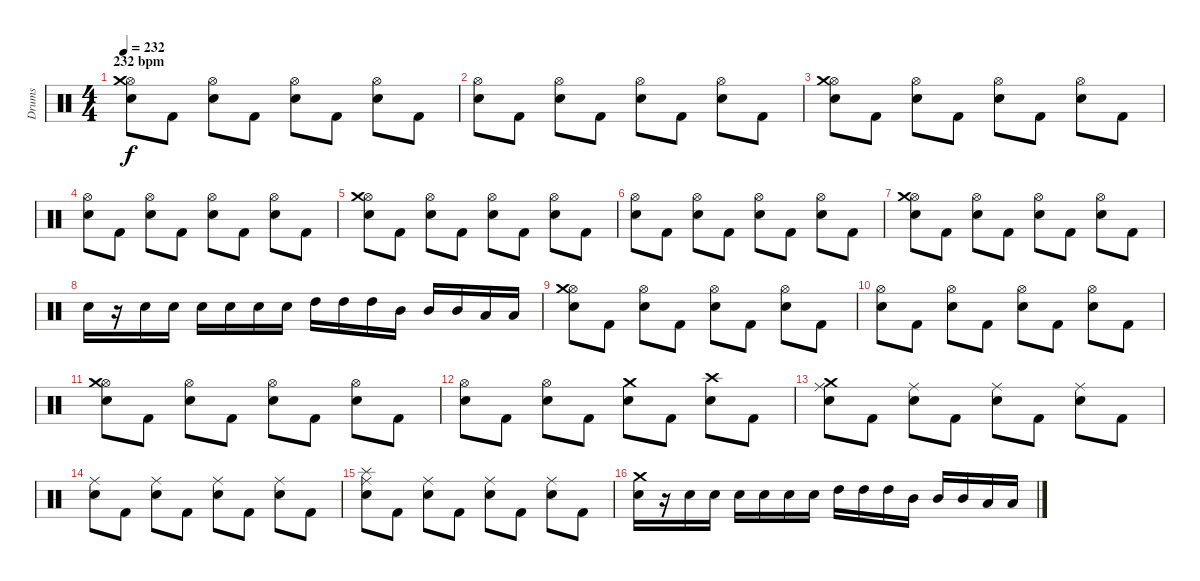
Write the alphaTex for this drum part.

\track ("Drums" "Drums") {instrument percussion}
\staff {score}
\articulation defaults
\ts (4 4)
\section ("" "232 bpm")
\tempo 232
\clef neutral
\ks c
("Snare (hit) 2" "Hi-Hat (open)" "Crash medium (hit)").8{dy f} "Kick (hit) 2".8 ("Snare (hit) 2" "Hi-Hat (open)").8 "Kick (hit) 2".8 ("Snare (hit) 2" "Hi-Hat (open)").8 "Kick (hit) 2".8 ("Snare (hit) 2" "Hi-Hat (open)").8 "Kick (hit) 2".8 |
("Snare (hit) 2" "Hi-Hat (open)").8 "Kick (hit) 2".8 ("Snare (hit) 2" "Hi-Hat (open)").8 "Kick (hit) 2".8 ("Snare (hit) 2" "Hi-Hat (open)").8 "Kick (hit) 2".8 ("Snare (hit) 2" "Hi-Hat (open)").8 "Kick (hit) 2".8 |
("Snare (hit) 2" "Hi-Hat (open)" "Crash medium (hit)").8 "Kick (hit) 2".8 ("Snare (hit) 2" "Hi-Hat (open)").8 "Kick (hit) 2".8 ("Snare (hit) 2" "Hi-Hat (open)").8 "Kick (hit) 2".8 ("Snare (hit) 2" "Hi-Hat (open)").8 "Kick (hit) 2".8 |
("Snare (hit) 2" "Hi-Hat (open)").8 "Kick (hit) 2".8 ("Snare (hit) 2" "Hi-Hat (open)").8 "Kick (hit) 2".8 ("Snare (hit) 2" "Hi-Hat (open)").8 "Kick (hit) 2".8 ("Snare (hit) 2" "Hi-Hat (open)").8 "Kick (hit) 2".8 |
("Snare (hit) 2" "Hi-Hat (open)" "Crash medium (hit)").8 "Kick (hit) 2".8 ("Snare (hit) 2" "Hi-Hat (open)").8 "Kick (hit) 2".8 ("Snare (hit) 2" "Hi-Hat (open)").8 "Kick (hit) 2".8 ("Snare (hit) 2" "Hi-Hat (open)").8 "Kick (hit) 2".8 |
("Snare (hit) 2" "Hi-Hat (open)").8 "Kick (hit) 2".8 ("Snare (hit) 2" "Hi-Hat (open)").8 "Kick (hit) 2".8 ("Snare (hit) 2" "Hi-Hat (open)").8 "Kick (hit) 2".8 ("Snare (hit) 2" "Hi-Hat (open)").8 "Kick (hit) 2".8 |
("Snare (hit) 2" "Hi-Hat (open)" "Crash medium (hit)").8 "Kick (hit) 2".8 ("Snare (hit) 2" "Hi-Hat (open)").8 "Kick (hit) 2".8 ("Snare (hit) 2" "Hi-Hat (open)").8 "Kick (hit) 2".8 ("Snare (hit) 2" "Hi-Hat (open)").8 "Kick (hit) 2".8 |
"Snare (hit) 2".16 r.16 "Snare (hit) 2".16 "Snare (hit) 2".16 "Snare (hit) 2".16 "Snare (hit) 2".16 "Snare (hit) 2".16 "Snare (hit) 2".16 "High Tom (hit)".16 "High Tom (hit)".16 "High Tom (hit)".16 "Mid Tom (hit)".16 "Mid Tom (hit)".16 "Mid Tom (hit)".16 "Low Tom (hit)".16 "Low Tom (hit)".16 |
("Snare (hit) 2" "Hi-Hat (open)" "Crash medium (hit)").8 "Kick (hit) 2".8 ("Snare (hit) 2" "Hi-Hat (open)").8 "Kick (hit) 2".8 ("Snare (hit) 2" "Hi-Hat (open)").8 "Kick (hit) 2".8 ("Snare (hit) 2" "Hi-Hat (open)").8 "Kick (hit) 2".8 |
("Snare (hit) 2" "Hi-Hat (open)").8 "Kick (hit) 2".8 ("Snare (hit) 2" "Hi-Hat (open)").8 "Kick (hit) 2".8 ("Snare (hit) 2" "Hi-Hat (open)").8 "Kick (hit) 2".8 ("Snare (hit) 2" "Hi-Hat (open)").8 "Kick (hit) 2".8 |
("Snare (hit) 2" "Hi-Hat (open)" "Crash medium (hit)").8 "Kick (hit) 2".8 ("Snare (hit) 2" "Hi-Hat (open)").8 "Kick (hit) 2".8 ("Snare (hit) 2" "Hi-Hat (open)").8 "Kick (hit) 2".8 ("Snare (hit) 2" "Hi-Hat (open)").8 "Kick (hit) 2".8 |
("Snare (hit) 2" "Hi-Hat (open)").8 "Kick (hit) 2".8 ("Snare (hit) 2" "Hi-Hat (open)").8 "Kick (hit) 2".8 ("Snare (hit) 2" "Crash medium (hit)").8 "Kick (hit) 2".8 ("Snare (hit) 2" "Crash high (hit)").8 "Kick (hit) 2".8 |
("Snare (hit) 2" "Ride (middle)" "Crash medium (hit)").8 "Kick (hit) 2".8 ("Snare (hit) 2" "Ride (middle)").8 "Kick (hit) 2".8 ("Snare (hit) 2" "Ride (middle)").8 "Kick (hit) 2".8 ("Snare (hit) 2" "Ride (middle)").8 "Kick (hit) 2".8 |
("Snare (hit) 2" "Ride (middle)").8 "Kick (hit) 2".8 ("Snare (hit) 2" "Ride (middle)").8 "Kick (hit) 2".8 ("Snare (hit) 2" "Ride (middle)").8 "Kick (hit) 2".8 ("Snare (hit) 2" "Ride (middle)").8 "Kick (hit) 2".8 |
("Snare (hit) 2" "Ride (middle)" "Splash (hit)").8 "Kick (hit) 2".8 ("Snare (hit) 2" "Ride (middle)").8 "Kick (hit) 2".8 ("Snare (hit) 2" "Ride (middle)").8 "Kick (hit) 2".8 ("Snare (hit) 2" "Ride (middle)").8 "Kick (hit) 2".8 |
("Snare (hit) 2" "Crash medium (hit)").16 r.16 "Snare (hit) 2".16 "Snare (hit) 2".16 "Snare (hit) 2".16 "Snare (hit) 2".16 "Snare (hit) 2".16 "Snare (hit) 2".16 "High Tom (hit)".16 "High Tom (hit)".16 "High Tom (hit)".16 "Mid Tom (hit)".16 "Mid Tom (hit)".16 "Mid Tom (hit)".16 "Low Tom (hit)".16 "Low Tom (hit)".16
